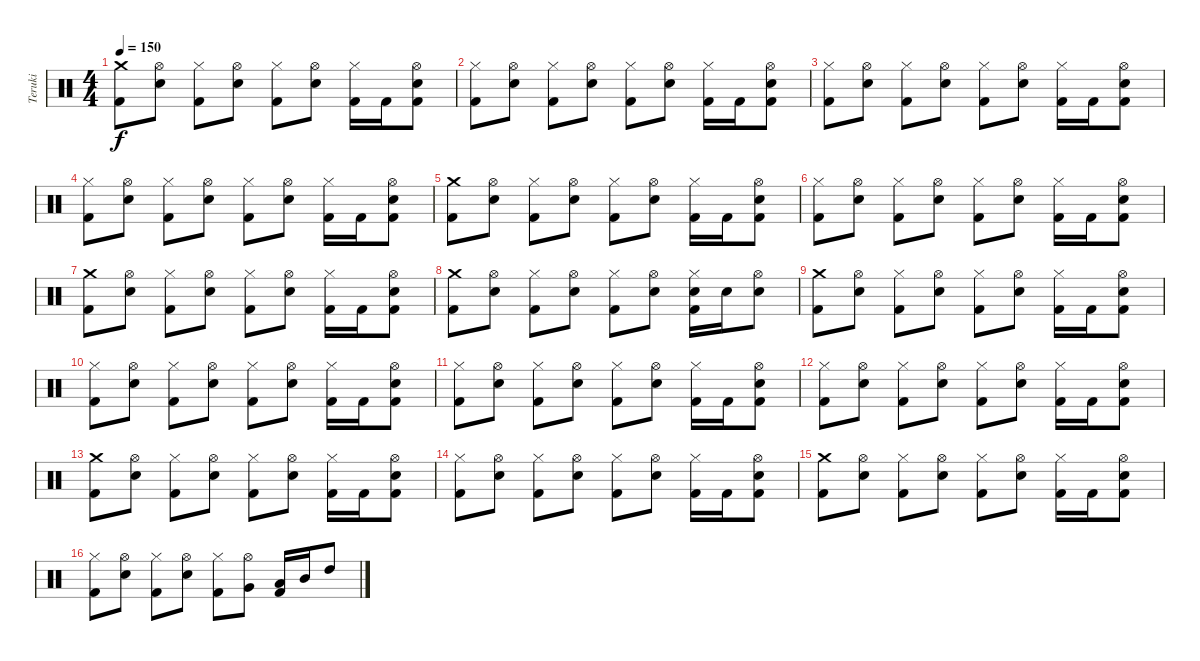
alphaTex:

\track ("Teruki" "Teruki") {instrument percussion}
\staff {score}
\articulation defaults
\ts (4 4)
\tempo 150
\clef neutral
\ks c
("Crash medium (hit)" "Kick (hit) 2").8{dy f} ("Hi-Hat (open)" "Electric Snare (hit)").8 ("Hi-Hat (closed)" "Kick (hit) 2").8 ("Hi-Hat (open)" "Electric Snare (hit)").8 ("Hi-Hat (closed)" "Kick (hit) 2").8 ("Hi-Hat (open)" "Electric Snare (hit)").8 ("Hi-Hat (closed)" "Kick (hit) 2").16 "Kick (hit) 2".16 ("Hi-Hat (open)" "Electric Snare (hit)" "Kick (hit) 2").8 |
("Hi-Hat (closed)" "Kick (hit) 2").8 ("Hi-Hat (open)" "Electric Snare (hit)").8 ("Hi-Hat (closed)" "Kick (hit) 2").8 ("Hi-Hat (open)" "Electric Snare (hit)").8 ("Hi-Hat (closed)" "Kick (hit) 2").8 ("Hi-Hat (open)" "Electric Snare (hit)").8 ("Hi-Hat (closed)" "Kick (hit) 2").16 "Kick (hit) 2".16 ("Hi-Hat (open)" "Electric Snare (hit)" "Kick (hit) 2").8 |
("Hi-Hat (closed)" "Kick (hit) 2").8 ("Hi-Hat (open)" "Electric Snare (hit)").8 ("Hi-Hat (closed)" "Kick (hit) 2").8 ("Hi-Hat (open)" "Electric Snare (hit)").8 ("Hi-Hat (closed)" "Kick (hit) 2").8 ("Hi-Hat (open)" "Electric Snare (hit)").8 ("Hi-Hat (closed)" "Kick (hit) 2").16 "Kick (hit) 2".16 ("Hi-Hat (open)" "Electric Snare (hit)" "Kick (hit) 2").8 |
("Hi-Hat (closed)" "Kick (hit) 2").8 ("Hi-Hat (open)" "Electric Snare (hit)").8 ("Hi-Hat (closed)" "Kick (hit) 2").8 ("Hi-Hat (open)" "Electric Snare (hit)").8 ("Hi-Hat (closed)" "Kick (hit) 2").8 ("Hi-Hat (open)" "Electric Snare (hit)").8 ("Hi-Hat (closed)" "Kick (hit) 2").16 "Kick (hit) 2".16 ("Hi-Hat (open)" "Electric Snare (hit)" "Kick (hit) 2").8 |
("Crash medium (hit)" "Kick (hit) 2").8 ("Hi-Hat (open)" "Electric Snare (hit)").8 ("Hi-Hat (closed)" "Kick (hit) 2").8 ("Hi-Hat (open)" "Electric Snare (hit)").8 ("Hi-Hat (closed)" "Kick (hit) 2").8 ("Hi-Hat (open)" "Electric Snare (hit)").8 ("Hi-Hat (closed)" "Kick (hit) 2").16 "Kick (hit) 2".16 ("Hi-Hat (open)" "Electric Snare (hit)" "Kick (hit) 2").8 |
("Hi-Hat (closed)" "Kick (hit) 2").8 ("Hi-Hat (open)" "Electric Snare (hit)").8 ("Hi-Hat (closed)" "Kick (hit) 2").8 ("Hi-Hat (open)" "Electric Snare (hit)").8 ("Hi-Hat (closed)" "Kick (hit) 2").8 ("Hi-Hat (open)" "Electric Snare (hit)").8 ("Hi-Hat (closed)" "Kick (hit) 2").16 "Kick (hit) 2".16 ("Hi-Hat (open)" "Electric Snare (hit)" "Kick (hit) 2").8 |
("Crash medium (hit)" "Kick (hit) 2").8 ("Hi-Hat (open)" "Electric Snare (hit)").8 ("Hi-Hat (closed)" "Kick (hit) 2").8 ("Hi-Hat (open)" "Electric Snare (hit)").8 ("Hi-Hat (closed)" "Kick (hit) 2").8 ("Hi-Hat (open)" "Electric Snare (hit)").8 ("Hi-Hat (closed)" "Kick (hit) 2").16 "Kick (hit) 2".16 ("Hi-Hat (open)" "Electric Snare (hit)" "Kick (hit) 2").8 |
("Crash medium (hit)" "Kick (hit) 2").8 ("Hi-Hat (open)" "Electric Snare (hit)").8 ("Hi-Hat (closed)" "Kick (hit) 2").8 ("Hi-Hat (open)" "Electric Snare (hit)").8 ("Hi-Hat (closed)" "Kick (hit) 2").8 ("Hi-Hat (open)" "Electric Snare (hit)").8 ("Hi-Hat (closed)" "Electric Snare (hit)" "Kick (hit) 2").16 "Electric Snare (hit)".16 ("Hi-Hat (open)" "Electric Snare (hit)").8 |
("Crash medium (hit)" "Kick (hit) 2").8 ("Hi-Hat (open)" "Electric Snare (hit)").8 ("Hi-Hat (closed)" "Kick (hit) 2").8 ("Hi-Hat (open)" "Electric Snare (hit)").8 ("Hi-Hat (closed)" "Kick (hit) 2").8 ("Hi-Hat (open)" "Electric Snare (hit)").8 ("Hi-Hat (closed)" "Kick (hit) 2").16 "Kick (hit) 2".16 ("Hi-Hat (open)" "Electric Snare (hit)" "Kick (hit) 2").8 |
("Hi-Hat (closed)" "Kick (hit) 2").8 ("Hi-Hat (open)" "Electric Snare (hit)").8 ("Hi-Hat (closed)" "Kick (hit) 2").8 ("Hi-Hat (open)" "Electric Snare (hit)").8 ("Hi-Hat (closed)" "Kick (hit) 2").8 ("Hi-Hat (open)" "Electric Snare (hit)").8 ("Hi-Hat (closed)" "Kick (hit) 2").16 "Kick (hit) 2".16 ("Hi-Hat (open)" "Electric Snare (hit)" "Kick (hit) 2").8 |
("Hi-Hat (closed)" "Kick (hit) 2").8 ("Hi-Hat (open)" "Electric Snare (hit)").8 ("Hi-Hat (closed)" "Kick (hit) 2").8 ("Hi-Hat (open)" "Electric Snare (hit)").8 ("Hi-Hat (closed)" "Kick (hit) 2").8 ("Hi-Hat (open)" "Electric Snare (hit)").8 ("Hi-Hat (closed)" "Kick (hit) 2").16 "Kick (hit) 2".16 ("Hi-Hat (open)" "Electric Snare (hit)" "Kick (hit) 2").8 |
("Hi-Hat (closed)" "Kick (hit) 2").8 ("Hi-Hat (open)" "Electric Snare (hit)").8 ("Hi-Hat (closed)" "Kick (hit) 2").8 ("Hi-Hat (open)" "Electric Snare (hit)").8 ("Hi-Hat (closed)" "Kick (hit) 2").8 ("Hi-Hat (open)" "Electric Snare (hit)").8 ("Hi-Hat (closed)" "Kick (hit) 2").16 "Kick (hit) 2".16 ("Hi-Hat (open)" "Electric Snare (hit)" "Kick (hit) 2").8 |
("Crash medium (hit)" "Kick (hit) 2").8 ("Hi-Hat (open)" "Electric Snare (hit)").8 ("Hi-Hat (closed)" "Kick (hit) 2").8 ("Hi-Hat (open)" "Electric Snare (hit)").8 ("Hi-Hat (closed)" "Kick (hit) 2").8 ("Hi-Hat (open)" "Electric Snare (hit)").8 ("Hi-Hat (closed)" "Kick (hit) 2").16 "Kick (hit) 2".16 ("Hi-Hat (open)" "Electric Snare (hit)" "Kick (hit) 2").8 |
("Hi-Hat (closed)" "Kick (hit) 2").8 ("Hi-Hat (open)" "Electric Snare (hit)").8 ("Hi-Hat (closed)" "Kick (hit) 2").8 ("Hi-Hat (open)" "Electric Snare (hit)").8 ("Hi-Hat (closed)" "Kick (hit) 2").8 ("Hi-Hat (open)" "Electric Snare (hit)").8 ("Hi-Hat (closed)" "Kick (hit) 2").16 "Kick (hit) 2".16 ("Hi-Hat (open)" "Electric Snare (hit)" "Kick (hit) 2").8 |
("Crash medium (hit)" "Kick (hit) 2").8 ("Hi-Hat (open)" "Electric Snare (hit)").8 ("Hi-Hat (closed)" "Kick (hit) 2").8 ("Hi-Hat (open)" "Electric Snare (hit)").8 ("Hi-Hat (closed)" "Kick (hit) 2").8 ("Hi-Hat (open)" "Electric Snare (hit)").8 ("Hi-Hat (closed)" "Kick (hit) 2").16 "Kick (hit) 2".16 ("Hi-Hat (open)" "Electric Snare (hit)" "Kick (hit) 2").8 |
("Hi-Hat (closed)" "Kick (hit) 2").8 ("Hi-Hat (open)" "Electric Snare (hit)").8 ("Hi-Hat (closed)" "Kick (hit) 2").8 ("Hi-Hat (open)" "Electric Snare (hit)").8 ("Hi-Hat (closed)" "Kick (hit) 2").8 ("Hi-Hat (open)" "Very Low Tom (hit)").8 ("Low Tom (hit)" "Kick (hit) 2").16 "Mid Tom (hit)".16 "High Tom (hit)".8
